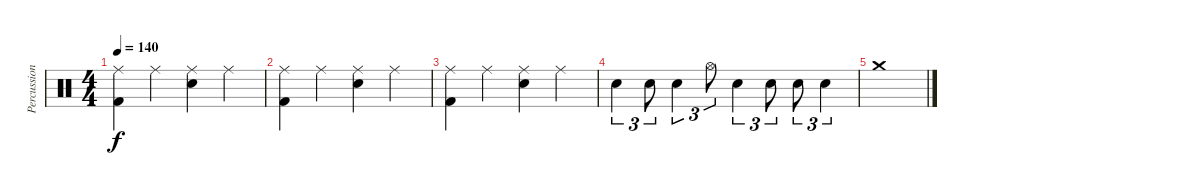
\track ("Percussion" "Percussion") {instrument percussion}
\staff {score}
\articulation defaults
\ts (4 4)
\tempo 140
\clef neutral
\ks c
("Ride (middle)" "Kick (hit) 2").4{dy f} "Ride (middle)".4 ("Ride (middle)" "Snare (hit) 2").4 "Ride (middle)".4 |
("Ride (middle)" "Kick (hit) 2").4 "Ride (middle)".4 ("Ride (middle)" "Snare (hit) 2").4 "Ride (middle)".4 |
("Ride (middle)" "Kick (hit) 2").4 "Ride (middle)".4 ("Ride (middle)" "Snare (hit) 2").4 "Ride (middle)".4 |
"Snare (hit) 2".4{tu (3 2)} "Snare (hit) 2".8{tu (3 2)} "Snare (hit) 2".4{tu (3 2)} "Hi-Hat (open)".8{tu (3 2)} "Snare (hit) 2".4{tu (3 2)} "Snare (hit) 2".8{tu (3 2)} "Snare (hit) 2".8{tu (3 2)} "Snare (hit) 2".4{tu (3 2)} |
"Crash medium (hit)".1
